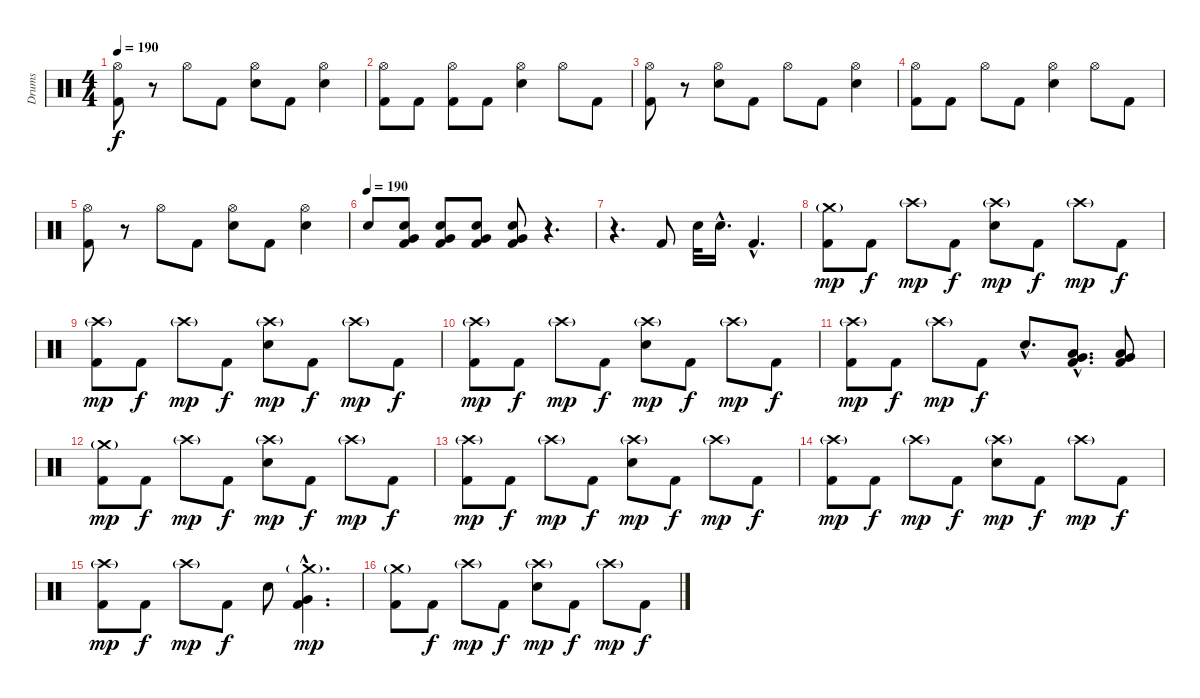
\track ("Drums" "Drums") {instrument percussion}
\staff {score}
\articulation defaults
\ts (4 4)
\tempo 190
\clef neutral
\ks c
("Hi-Hat (open)" "Kick (hit) 2").8{dy f} r.8 "Hi-Hat (open)".8 "Kick (hit) 2".8 ("Hi-Hat (open)" "Snare (hit) 2").8 "Kick (hit) 2".8 ("Hi-Hat (open)" "Snare (hit) 2").4 |
("Hi-Hat (open)" "Kick (hit) 2").8 "Kick (hit) 2".8 ("Hi-Hat (open)" "Kick (hit) 2").8 "Kick (hit) 2".8 ("Hi-Hat (open)" "Snare (hit) 2").4 "Hi-Hat (open)".8 "Kick (hit) 2".8 |
("Hi-Hat (open)" "Kick (hit) 2").8 r.8 ("Hi-Hat (open)" "Snare (hit) 2").8 "Kick (hit) 2".8 "Hi-Hat (open)".8 "Kick (hit) 2".8 ("Hi-Hat (open)" "Snare (hit) 2").4 |
("Hi-Hat (open)" "Kick (hit) 2").8 "Kick (hit) 2".8 "Hi-Hat (open)".8 "Kick (hit) 2".8 ("Hi-Hat (open)" "Snare (hit) 2").4 "Hi-Hat (open)".8 "Kick (hit) 2".8 |
("Hi-Hat (open)" "Kick (hit) 2").8 r.8 "Hi-Hat (open)".8 "Kick (hit) 2".8 ("Hi-Hat (open)" "Snare (hit) 2").8 "Kick (hit) 2".8 ("Hi-Hat (open)" "Snare (hit) 2").4 |
\tempo (190)
"Snare (hit) 2".8 ("Snare (hit) 2" "Very Low Tom (hit)" "Kick (hit) 2").8 ("Snare (hit) 2" "Very Low Tom (hit)" "Kick (hit) 2").8 ("Snare (hit) 2" "Very Low Tom (hit)" "Kick (hit) 2").8 ("Snare (hit) 2" "Very Low Tom (hit)" "Kick (hit) 2").8 r.4{d} |
r.4{d} "Kick (hit) 2".8 "Snare (hit) 2".32 "Snare (hit) 2"{hac}.16{d} "Kick (hit) 2"{hac}.4{d} |
("Crash medium (hit)"{g} "Kick (hit) 2").8{dy mp} "Kick (hit) 2".8{dy f} "Crash high (hit)"{g}.8{dy mp} "Kick (hit) 2".8{dy f} ("Crash high (hit)"{g} "Snare (hit) 2").8{dy mp} "Kick (hit) 2".8{dy f} "Crash high (hit)"{g}.8{dy mp} "Kick (hit) 2".8{dy f} |
("Crash high (hit)"{g} "Kick (hit) 2").8{dy mp} "Kick (hit) 2".8{dy f} "Crash high (hit)"{g}.8{dy mp} "Kick (hit) 2".8{dy f} ("Crash high (hit)"{g} "Snare (hit) 2").8{dy mp} "Kick (hit) 2".8{dy f} "Crash high (hit)"{g}.8{dy mp} "Kick (hit) 2".8{dy f} |
("Crash high (hit)"{g} "Kick (hit) 2").8{dy mp} "Kick (hit) 2".8{dy f} "Crash high (hit)"{g}.8{dy mp} "Kick (hit) 2".8{dy f} ("Crash high (hit)"{g} "Snare (hit) 2").8{dy mp} "Kick (hit) 2".8{dy f} "Crash high (hit)"{g}.8{dy mp} "Kick (hit) 2".8{dy f} |
("Crash high (hit)"{g} "Kick (hit) 2").8{dy mp} "Kick (hit) 2".8{dy f} "Crash high (hit)"{g}.8{dy mp} "Kick (hit) 2".8{dy f} "Snare (hit) 2"{hac}.8{d} ("Low Tom (hit)"{hac} "Very Low Tom (hit)"{hac} "Kick (hit) 2"{hac}).8{d} ("Low Tom (hit)" "Very Low Tom (hit)" "Kick (hit) 2").8 |
("Crash medium (hit)"{g} "Kick (hit) 2").8{dy mp} "Kick (hit) 2".8{dy f} "Crash high (hit)"{g}.8{dy mp} "Kick (hit) 2".8{dy f} ("Crash high (hit)"{g} "Snare (hit) 2").8{dy mp} "Kick (hit) 2".8{dy f} "Crash high (hit)"{g}.8{dy mp} "Kick (hit) 2".8{dy f} |
("Crash high (hit)"{g} "Kick (hit) 2").8{dy mp} "Kick (hit) 2".8{dy f} "Crash high (hit)"{g}.8{dy mp} "Kick (hit) 2".8{dy f} ("Crash high (hit)"{g} "Snare (hit) 2").8{dy mp} "Kick (hit) 2".8{dy f} "Crash high (hit)"{g}.8{dy mp} "Kick (hit) 2".8{dy f} |
("Crash high (hit)"{g} "Kick (hit) 2").8{dy mp} "Kick (hit) 2".8{dy f} "Crash high (hit)"{g}.8{dy mp} "Kick (hit) 2".8{dy f} ("Crash high (hit)"{g} "Snare (hit) 2").8{dy mp} "Kick (hit) 2".8{dy f} "Crash high (hit)"{g}.8{dy mp} "Kick (hit) 2".8{dy f} |
("Crash high (hit)"{g} "Kick (hit) 2").8{dy mp} "Kick (hit) 2".8{dy f} "Crash high (hit)"{g}.8{dy mp} "Kick (hit) 2".8{dy f} "Snare (hit) 2".8 ("Crash medium (hit)"{g hac} "Very Low Tom (hit)"{hac} "Kick (hit) 2"{hac}).4{d dy mp} |
("Crash medium (hit)"{g} "Kick (hit) 2").8 "Kick (hit) 2".8{dy f} "Crash high (hit)"{g}.8{dy mp} "Kick (hit) 2".8{dy f} ("Crash high (hit)"{g} "Snare (hit) 2").8{dy mp} "Kick (hit) 2".8{dy f} "Crash high (hit)"{g}.8{dy mp} "Kick (hit) 2".8{dy f}
